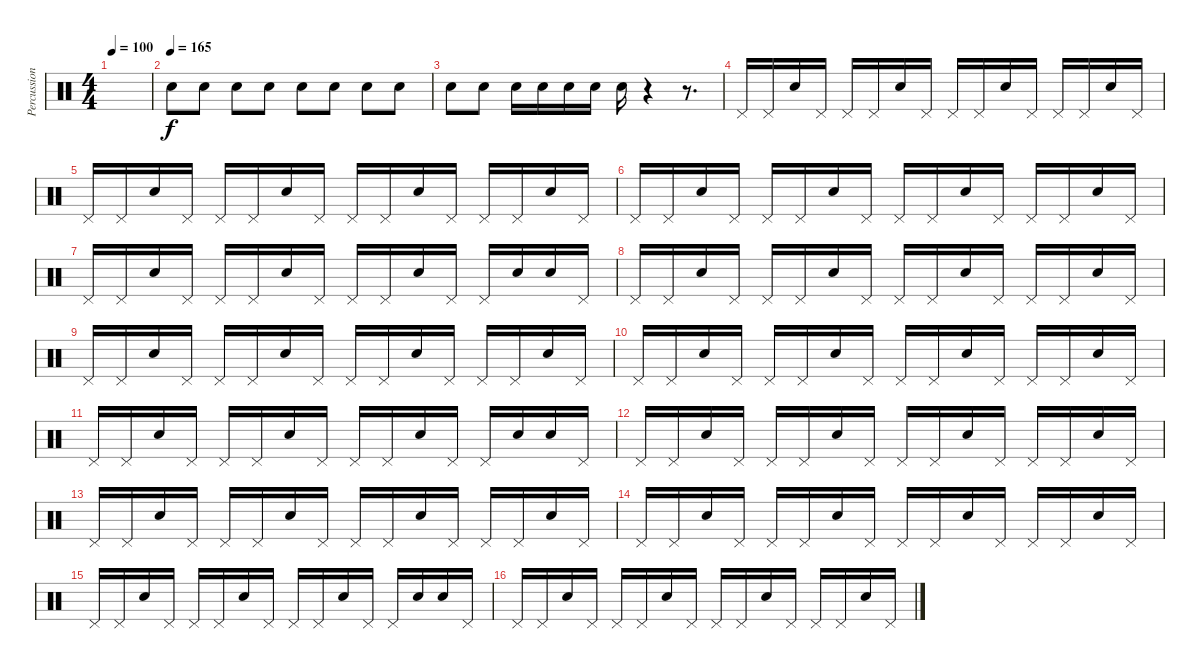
\track ("Percussions" "Percussion") {instrument percussion}
\staff {score}
\articulation defaults
\ts (4 4)
\tempo 100
\clef neutral
\ks c
|
\tempo 160
\tempo (165)
"Snare (hit) 2".8 "Snare (hit) 2".8 "Snare (hit) 2".8 "Snare (hit) 2".8 "Snare (hit) 2".8 "Snare (hit) 2".8 "Snare (hit) 2".8 "Snare (hit) 2".8 |
"Snare (hit) 2".8 "Snare (hit) 2".8 "Snare (hit) 2".16 "Snare (hit) 2".16 "Snare (hit) 2".16 "Snare (hit) 2".16 "Snare (hit) 2".16 r.4 r.8{d} |
"Pedal Hi-Hat (hit)".16 "Pedal Hi-Hat (hit)".16 "Snare (hit) 2".16 "Pedal Hi-Hat (hit)".16 "Pedal Hi-Hat (hit)".16 "Pedal Hi-Hat (hit)".16 "Snare (hit) 2".16 "Pedal Hi-Hat (hit)".16 "Pedal Hi-Hat (hit)".16 "Pedal Hi-Hat (hit)".16 "Snare (hit) 2".16 "Pedal Hi-Hat (hit)".16 "Pedal Hi-Hat (hit)".16 "Pedal Hi-Hat (hit)".16 "Snare (hit) 2".16 "Pedal Hi-Hat (hit)".16 |
"Pedal Hi-Hat (hit)".16 "Pedal Hi-Hat (hit)".16 "Snare (hit) 2".16 "Pedal Hi-Hat (hit)".16 "Pedal Hi-Hat (hit)".16 "Pedal Hi-Hat (hit)".16 "Snare (hit) 2".16 "Pedal Hi-Hat (hit)".16 "Pedal Hi-Hat (hit)".16 "Pedal Hi-Hat (hit)".16 "Snare (hit) 2".16 "Pedal Hi-Hat (hit)".16 "Pedal Hi-Hat (hit)".16 "Pedal Hi-Hat (hit)".16 "Snare (hit) 2".16 "Pedal Hi-Hat (hit)".16 |
"Pedal Hi-Hat (hit)".16 "Pedal Hi-Hat (hit)".16 "Snare (hit) 2".16 "Pedal Hi-Hat (hit)".16 "Pedal Hi-Hat (hit)".16 "Pedal Hi-Hat (hit)".16 "Snare (hit) 2".16 "Pedal Hi-Hat (hit)".16 "Pedal Hi-Hat (hit)".16 "Pedal Hi-Hat (hit)".16 "Snare (hit) 2".16 "Pedal Hi-Hat (hit)".16 "Pedal Hi-Hat (hit)".16 "Pedal Hi-Hat (hit)".16 "Snare (hit) 2".16 "Pedal Hi-Hat (hit)".16 |
"Pedal Hi-Hat (hit)".16 "Pedal Hi-Hat (hit)".16 "Snare (hit) 2".16 "Pedal Hi-Hat (hit)".16 "Pedal Hi-Hat (hit)".16 "Pedal Hi-Hat (hit)".16 "Snare (hit) 2".16 "Pedal Hi-Hat (hit)".16 "Pedal Hi-Hat (hit)".16 "Pedal Hi-Hat (hit)".16 "Snare (hit) 2".16 "Pedal Hi-Hat (hit)".16 "Pedal Hi-Hat (hit)".16 "Snare (hit) 2".16 "Snare (hit) 2".16 "Pedal Hi-Hat (hit)".16 |
"Pedal Hi-Hat (hit)".16 "Pedal Hi-Hat (hit)".16 "Snare (hit) 2".16 "Pedal Hi-Hat (hit)".16 "Pedal Hi-Hat (hit)".16 "Pedal Hi-Hat (hit)".16 "Snare (hit) 2".16 "Pedal Hi-Hat (hit)".16 "Pedal Hi-Hat (hit)".16 "Pedal Hi-Hat (hit)".16 "Snare (hit) 2".16 "Pedal Hi-Hat (hit)".16 "Pedal Hi-Hat (hit)".16 "Pedal Hi-Hat (hit)".16 "Snare (hit) 2".16 "Pedal Hi-Hat (hit)".16 |
"Pedal Hi-Hat (hit)".16 "Pedal Hi-Hat (hit)".16 "Snare (hit) 2".16 "Pedal Hi-Hat (hit)".16 "Pedal Hi-Hat (hit)".16 "Pedal Hi-Hat (hit)".16 "Snare (hit) 2".16 "Pedal Hi-Hat (hit)".16 "Pedal Hi-Hat (hit)".16 "Pedal Hi-Hat (hit)".16 "Snare (hit) 2".16 "Pedal Hi-Hat (hit)".16 "Pedal Hi-Hat (hit)".16 "Pedal Hi-Hat (hit)".16 "Snare (hit) 2".16 "Pedal Hi-Hat (hit)".16 |
"Pedal Hi-Hat (hit)".16 "Pedal Hi-Hat (hit)".16 "Snare (hit) 2".16 "Pedal Hi-Hat (hit)".16 "Pedal Hi-Hat (hit)".16 "Pedal Hi-Hat (hit)".16 "Snare (hit) 2".16 "Pedal Hi-Hat (hit)".16 "Pedal Hi-Hat (hit)".16 "Pedal Hi-Hat (hit)".16 "Snare (hit) 2".16 "Pedal Hi-Hat (hit)".16 "Pedal Hi-Hat (hit)".16 "Pedal Hi-Hat (hit)".16 "Snare (hit) 2".16 "Pedal Hi-Hat (hit)".16 |
"Pedal Hi-Hat (hit)".16 "Pedal Hi-Hat (hit)".16 "Snare (hit) 2".16 "Pedal Hi-Hat (hit)".16 "Pedal Hi-Hat (hit)".16 "Pedal Hi-Hat (hit)".16 "Snare (hit) 2".16 "Pedal Hi-Hat (hit)".16 "Pedal Hi-Hat (hit)".16 "Pedal Hi-Hat (hit)".16 "Snare (hit) 2".16 "Pedal Hi-Hat (hit)".16 "Pedal Hi-Hat (hit)".16 "Snare (hit) 2".16 "Snare (hit) 2".16 "Pedal Hi-Hat (hit)".16 |
"Pedal Hi-Hat (hit)".16 "Pedal Hi-Hat (hit)".16 "Snare (hit) 2".16 "Pedal Hi-Hat (hit)".16 "Pedal Hi-Hat (hit)".16 "Pedal Hi-Hat (hit)".16 "Snare (hit) 2".16 "Pedal Hi-Hat (hit)".16 "Pedal Hi-Hat (hit)".16 "Pedal Hi-Hat (hit)".16 "Snare (hit) 2".16 "Pedal Hi-Hat (hit)".16 "Pedal Hi-Hat (hit)".16 "Pedal Hi-Hat (hit)".16 "Snare (hit) 2".16 "Pedal Hi-Hat (hit)".16 |
"Pedal Hi-Hat (hit)".16 "Pedal Hi-Hat (hit)".16 "Snare (hit) 2".16 "Pedal Hi-Hat (hit)".16 "Pedal Hi-Hat (hit)".16 "Pedal Hi-Hat (hit)".16 "Snare (hit) 2".16 "Pedal Hi-Hat (hit)".16 "Pedal Hi-Hat (hit)".16 "Pedal Hi-Hat (hit)".16 "Snare (hit) 2".16 "Pedal Hi-Hat (hit)".16 "Pedal Hi-Hat (hit)".16 "Pedal Hi-Hat (hit)".16 "Snare (hit) 2".16 "Pedal Hi-Hat (hit)".16 |
"Pedal Hi-Hat (hit)".16 "Pedal Hi-Hat (hit)".16 "Snare (hit) 2".16 "Pedal Hi-Hat (hit)".16 "Pedal Hi-Hat (hit)".16 "Pedal Hi-Hat (hit)".16 "Snare (hit) 2".16 "Pedal Hi-Hat (hit)".16 "Pedal Hi-Hat (hit)".16 "Pedal Hi-Hat (hit)".16 "Snare (hit) 2".16 "Pedal Hi-Hat (hit)".16 "Pedal Hi-Hat (hit)".16 "Pedal Hi-Hat (hit)".16 "Snare (hit) 2".16 "Pedal Hi-Hat (hit)".16 |
"Pedal Hi-Hat (hit)".16 "Pedal Hi-Hat (hit)".16 "Snare (hit) 2".16 "Pedal Hi-Hat (hit)".16 "Pedal Hi-Hat (hit)".16 "Pedal Hi-Hat (hit)".16 "Snare (hit) 2".16 "Pedal Hi-Hat (hit)".16 "Pedal Hi-Hat (hit)".16 "Pedal Hi-Hat (hit)".16 "Snare (hit) 2".16 "Pedal Hi-Hat (hit)".16 "Pedal Hi-Hat (hit)".16 "Snare (hit) 2".16 "Snare (hit) 2".16 "Pedal Hi-Hat (hit)".16 |
"Pedal Hi-Hat (hit)".16 "Pedal Hi-Hat (hit)".16 "Snare (hit) 2".16 "Pedal Hi-Hat (hit)".16 "Pedal Hi-Hat (hit)".16 "Pedal Hi-Hat (hit)".16 "Snare (hit) 2".16 "Pedal Hi-Hat (hit)".16 "Pedal Hi-Hat (hit)".16 "Pedal Hi-Hat (hit)".16 "Snare (hit) 2".16 "Pedal Hi-Hat (hit)".16 "Pedal Hi-Hat (hit)".16 "Pedal Hi-Hat (hit)".16 "Snare (hit) 2".16 "Pedal Hi-Hat (hit)".16
